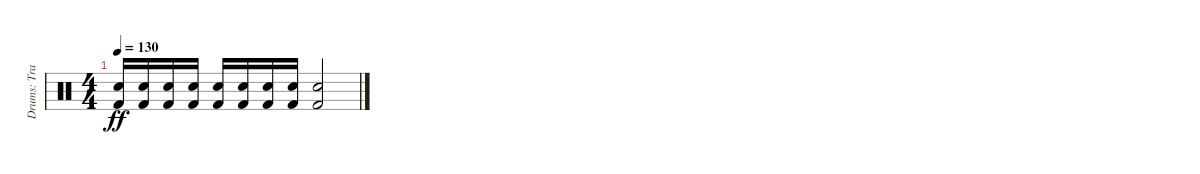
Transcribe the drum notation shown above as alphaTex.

\track ("Drums: Travis Clarke" "Drums: Tra") {instrument percussion}
\staff {score}
\articulation defaults
\ts (4 4)
\tempo 130
\clef neutral
\ks c
("Kick (hit) 2" "Snare (hit) 2").16{dy ff} ("Kick (hit) 2" "Snare (hit) 2").16 ("Kick (hit) 2" "Snare (hit) 2").16 ("Kick (hit) 2" "Snare (hit) 2").16 ("Kick (hit) 2" "Snare (hit) 2").16 ("Kick (hit) 2" "Snare (hit) 2").16 ("Kick (hit) 2" "Snare (hit) 2").16 ("Kick (hit) 2" "Snare (hit) 2").16 ("Kick (hit) 2" "Snare (hit) 2").2
